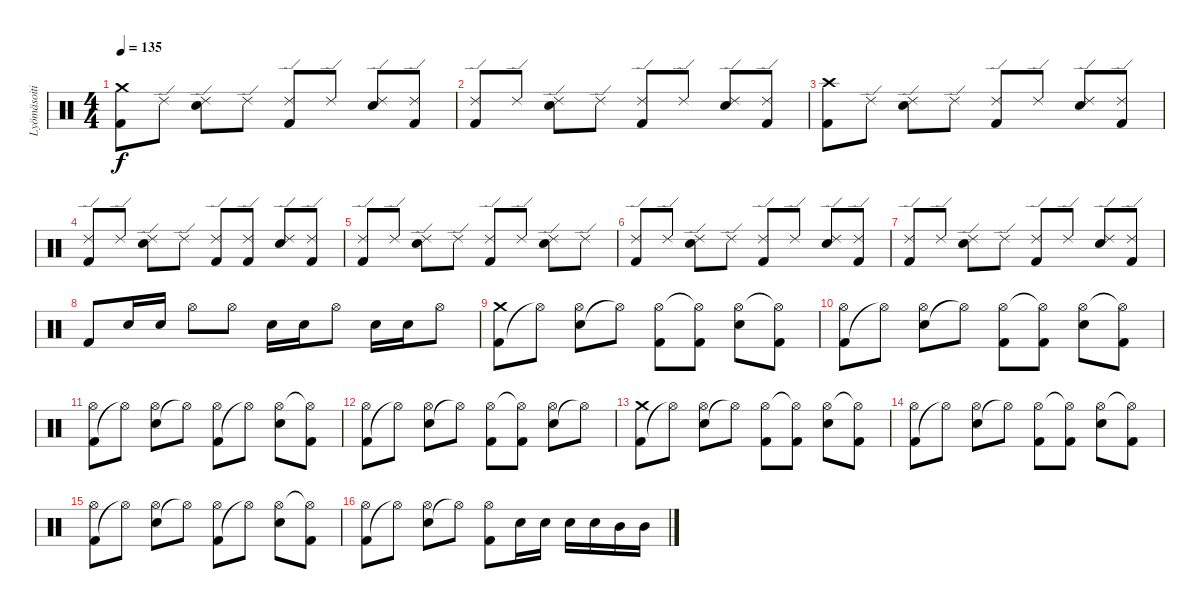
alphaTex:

\track ("Lyömäsoitin" "Lyömäsoiti") {instrument percussion}
\staff {score}
\articulation defaults
\ts (4 4)
\tempo 135
\clef neutral
\ks c
("Kick (hit) 2" "Crash medium (hit)").8{dy f} "Ride (edge) 2".8 ("Electric Snare (hit)" "Ride (edge) 2").8 "Ride (edge) 2".8 ("Kick (hit) 2" "Ride (edge) 2").8 "Ride (edge) 2".8 ("Electric Snare (hit)" "Ride (edge) 2").8 ("Kick (hit) 2" "Ride (edge) 2").8 |
("Kick (hit) 2" "Ride (edge) 2").8 "Ride (edge) 2".8 ("Electric Snare (hit)" "Ride (edge) 2").8 "Ride (edge) 2".8 ("Kick (hit) 2" "Ride (edge) 2").8 "Ride (edge) 2".8 ("Electric Snare (hit)" "Ride (edge) 2").8 ("Kick (hit) 2" "Ride (edge) 2").8 |
("Kick (hit) 2" "Crash high (hit)").8 "Ride (edge) 2".8 ("Electric Snare (hit)" "Ride (edge) 2").8 "Ride (edge) 2".8 ("Kick (hit) 2" "Ride (edge) 2").8 "Ride (edge) 2".8 ("Electric Snare (hit)" "Ride (edge) 2").8 ("Kick (hit) 2" "Ride (edge) 2").8 |
("Kick (hit) 2" "Ride (edge) 2").8 "Ride (edge) 2".8 ("Electric Snare (hit)" "Ride (edge) 2").8 "Ride (edge) 2".8 ("Kick (hit) 2" "Ride (edge) 2").8 ("Kick (hit) 2" "Ride (edge) 2").8 ("Electric Snare (hit)" "Ride (edge) 2").8 ("Kick (hit) 2" "Ride (edge) 2").8 |
("Kick (hit) 2" "Ride (edge) 2").8 "Ride (edge) 2".8 ("Electric Snare (hit)" "Ride (edge) 2").8 "Ride (edge) 2".8 ("Kick (hit) 2" "Ride (edge) 2").8 "Ride (edge) 2".8 ("Electric Snare (hit)" "Ride (edge) 2").8 "Ride (edge) 2".8 |
("Kick (hit) 2" "Ride (edge) 2").8 "Ride (edge) 2".8 ("Electric Snare (hit)" "Ride (edge) 2").8 "Ride (edge) 2".8 ("Kick (hit) 2" "Ride (edge) 2").8 "Ride (edge) 2".8 ("Electric Snare (hit)" "Ride (edge) 2").8 ("Kick (hit) 2" "Ride (edge) 2").8 |
("Kick (hit) 2" "Ride (edge) 2").8 "Ride (edge) 2".8 ("Electric Snare (hit)" "Ride (edge) 2").8 "Ride (edge) 2".8 ("Kick (hit) 2" "Ride (edge) 2").8 "Ride (edge) 2".8 ("Electric Snare (hit)" "Ride (edge) 2").8 ("Kick (hit) 2" "Ride (edge) 2").8 |
"Kick (hit) 2".8 "Electric Snare (hit)".16 "Electric Snare (hit)".16 "Hi-Hat (open)".8 "Hi-Hat (open)".8 "Electric Snare (hit)".16 "Electric Snare (hit)".16 "Hi-Hat (open)".8 "Electric Snare (hit)".16 "Electric Snare (hit)".16 "Hi-Hat (open)".8 |
("Kick (hit) 2" "Crash medium (hit)").8 "Hi-Hat (open)"{t}.8 ("Electric Snare (hit)" "Hi-Hat (open)").8 "Hi-Hat (open)"{t}.8 ("Kick (hit) 2" "Hi-Hat (open)").8 ("Kick (hit) 2" "Hi-Hat (open)"{t}).8 ("Electric Snare (hit)" "Hi-Hat (open)").8 ("Kick (hit) 2" "Hi-Hat (open)"{t}).8 |
("Kick (hit) 2" "Hi-Hat (open)").8 "Hi-Hat (open)"{t}.8 ("Electric Snare (hit)" "Hi-Hat (open)").8 "Hi-Hat (open)"{t}.8 ("Kick (hit) 2" "Hi-Hat (open)").8 ("Kick (hit) 2" "Hi-Hat (open)"{t}).8 ("Electric Snare (hit)" "Hi-Hat (open)").8 ("Kick (hit) 2" "Hi-Hat (open)"{t}).8 |
("Kick (hit) 2" "Hi-Hat (open)").8 "Hi-Hat (open)"{t}.8 ("Electric Snare (hit)" "Hi-Hat (open)").8 "Hi-Hat (open)"{t}.8 ("Kick (hit) 2" "Hi-Hat (open)").8 "Hi-Hat (open)"{t}.8 ("Electric Snare (hit)" "Hi-Hat (open)").8 ("Kick (hit) 2" "Hi-Hat (open)"{t}).8 |
("Kick (hit) 2" "Hi-Hat (open)").8 "Hi-Hat (open)"{t}.8 ("Electric Snare (hit)" "Hi-Hat (open)").8 "Hi-Hat (open)"{t}.8 ("Kick (hit) 2" "Hi-Hat (open)").8 ("Kick (hit) 2" "Hi-Hat (open)"{t}).8 ("Electric Snare (hit)" "Hi-Hat (open)").8 "Hi-Hat (open)"{t}.8 |
("Kick (hit) 2" "Crash medium (hit)").8 "Hi-Hat (open)"{t}.8 ("Electric Snare (hit)" "Hi-Hat (open)").8 "Hi-Hat (open)"{t}.8 ("Kick (hit) 2" "Hi-Hat (open)").8 ("Kick (hit) 2" "Hi-Hat (open)"{t}).8 ("Electric Snare (hit)" "Hi-Hat (open)").8 ("Kick (hit) 2" "Hi-Hat (open)"{t}).8 |
("Kick (hit) 2" "Hi-Hat (open)").8 "Hi-Hat (open)"{t}.8 ("Electric Snare (hit)" "Hi-Hat (open)").8 "Hi-Hat (open)"{t}.8 ("Kick (hit) 2" "Hi-Hat (open)").8 ("Kick (hit) 2" "Hi-Hat (open)"{t}).8 ("Electric Snare (hit)" "Hi-Hat (open)").8 ("Kick (hit) 2" "Hi-Hat (open)"{t}).8 |
("Kick (hit) 2" "Hi-Hat (open)").8 "Hi-Hat (open)"{t}.8 ("Electric Snare (hit)" "Hi-Hat (open)").8 "Hi-Hat (open)"{t}.8 ("Kick (hit) 2" "Hi-Hat (open)").8 "Hi-Hat (open)"{t}.8 ("Electric Snare (hit)" "Hi-Hat (open)").8 ("Kick (hit) 2" "Hi-Hat (open)"{t}).8 |
("Kick (hit) 2" "Hi-Hat (open)").8 "Hi-Hat (open)"{t}.8 ("Electric Snare (hit)" "Hi-Hat (open)").8 "Hi-Hat (open)"{t}.8 ("Kick (hit) 2" "Hi-Hat (open)").8 "Electric Snare (hit)".16 "Electric Snare (hit)".16 "Electric Snare (hit)".16 "Electric Snare (hit)".16 "Mid Tom (hit)".16 "Mid Tom (hit)".16
